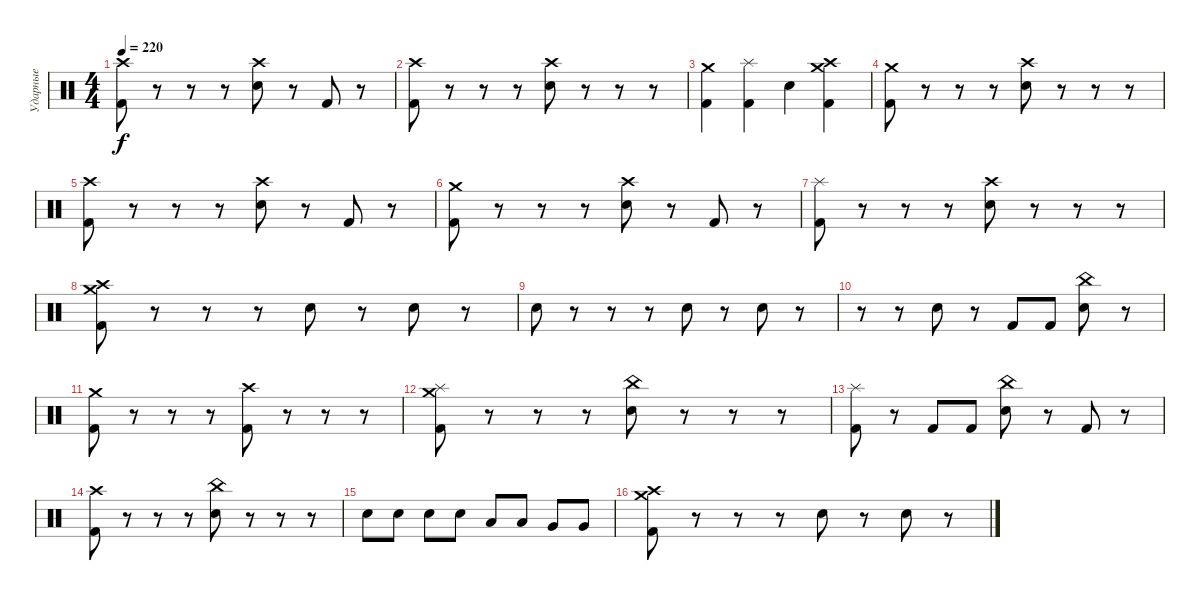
\track ("Ударные" "Ударные") {instrument percussion}
\staff {score}
\articulation defaults
\ts (4 4)
\tempo 220
\clef neutral
\ks c
("Kick (hit) 2" "Crash high (hit)").8{dy f} r.8 r.8 r.8 ("Electric Snare (hit)" "Crash high (hit)").8 r.8 "Kick (hit) 2".8 r.8 |
("Kick (hit) 2" "Crash high (hit)").8 r.8 r.8 r.8 ("Electric Snare (hit)" "Crash high (hit)").8 r.8 r.8 r.8 |
("Kick (hit) 2" "Crash medium (hit)").4 ("Kick (hit) 2" "Splash (hit)").4 "Electric Snare (hit)".4 ("Kick (hit) 2" "Crash medium (hit)" "Crash high (hit)").4 |
("Kick (hit) 2" "Crash medium (hit)").8 r.8 r.8 r.8 ("Electric Snare (hit)" "Crash high (hit)").8 r.8 r.8 r.8 |
("Kick (hit) 2" "Crash high (hit)").8 r.8 r.8 r.8 ("Electric Snare (hit)" "Crash high (hit)").8 r.8 "Kick (hit) 2".8 r.8 |
("Kick (hit) 2" "Crash medium (hit)").8 r.8 r.8 r.8 ("Electric Snare (hit)" "Crash high (hit)").8 r.8 "Kick (hit) 2".8 r.8 |
("Kick (hit) 2" "Splash (hit)").8 r.8 r.8 r.8 ("Electric Snare (hit)" "Crash high (hit)").8 r.8 r.8 r.8 |
("Kick (hit) 2" "Crash high (hit)" "Crash medium (hit)").8 r.8 r.8 r.8 "Electric Snare (hit)".8 r.8 "Electric Snare (hit)".8 r.8 |
"Electric Snare (hit)".8 r.8 r.8 r.8 "Electric Snare (hit)".8 r.8 "Electric Snare (hit)".8 r.8 |
r.8 r.8 "Electric Snare (hit)".8 r.8 "Kick (hit) 2".8 "Kick (hit) 2".8 ("Electric Snare (hit)" "China (hit)").8 r.8 |
("Kick (hit) 2" "Crash medium (hit)").8 r.8 r.8 r.8 ("Kick (hit) 2" "Crash high (hit)").8 r.8 r.8 r.8 |
("Kick (hit) 2" "Crash medium (hit)" "Splash (hit)").8 r.8 r.8 r.8 ("Electric Snare (hit)" "China (hit)").8 r.8 r.8 r.8 |
("Kick (hit) 2" "Splash (hit)").8 r.8 "Kick (hit) 2".8 "Kick (hit) 2".8 ("Electric Snare (hit)" "China (hit)").8 r.8 "Kick (hit) 2".8 r.8 |
("Kick (hit) 2" "Crash high (hit)").8 r.8 r.8 r.8 ("Electric Snare (hit)" "China (hit)").8 r.8 r.8 r.8 |
"Electric Snare (hit)".8 "Electric Snare (hit)".8 "Electric Snare (hit)".8 "Electric Snare (hit)".8 "Low Tom (hit)".8 "Low Tom (hit)".8 "Very Low Tom (hit)".8 "Very Low Tom (hit)".8 |
("Kick (hit) 2" "Crash high (hit)" "Crash medium (hit)").8 r.8 r.8 r.8 "Electric Snare (hit)".8 r.8 "Electric Snare (hit)".8 r.8
